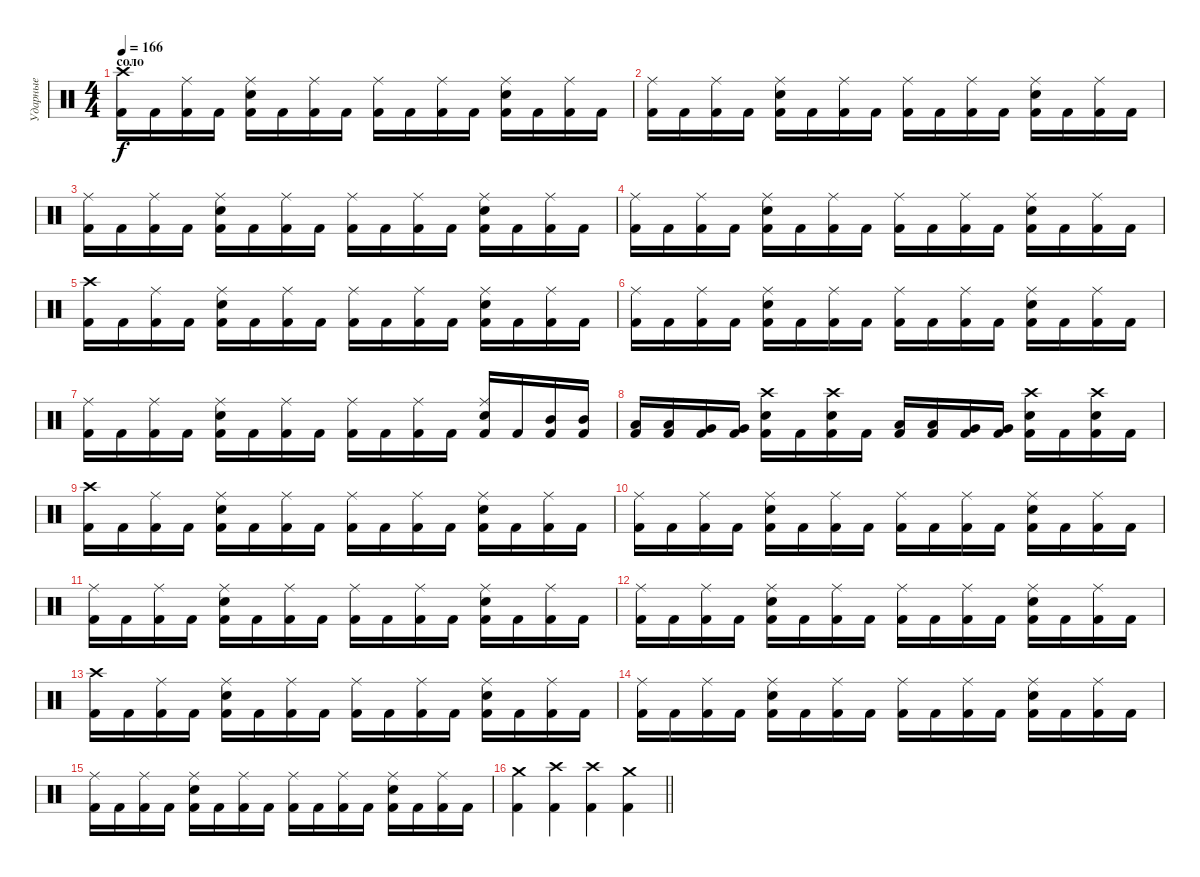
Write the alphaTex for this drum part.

\track ("Ударные" "Ударные") {instrument percussion}
\staff {score}
\articulation defaults
\ts (4 4)
\section ("" "соло")
\tempo 166
\clef neutral
\ks c
("Crash high (hit)" "Kick (hit) 2").16{dy f} "Kick (hit) 2".16 ("Ride (middle)" "Kick (hit) 2").16 "Kick (hit) 2".16 ("Ride (middle)" "Snare (hit) 2" "Kick (hit) 2").16 "Kick (hit) 2".16 ("Ride (middle)" "Kick (hit) 2").16 "Kick (hit) 2".16 ("Ride (middle)" "Kick (hit) 2").16 "Kick (hit) 2".16 ("Ride (middle)" "Kick (hit) 2").16 "Kick (hit) 2".16 ("Ride (middle)" "Snare (hit) 2" "Kick (hit) 2").16 "Kick (hit) 2".16 ("Ride (middle)" "Kick (hit) 2").16 "Kick (hit) 2".16 |
("Ride (middle)" "Kick (hit) 2").16 "Kick (hit) 2".16 ("Ride (middle)" "Kick (hit) 2").16 "Kick (hit) 2".16 ("Ride (middle)" "Snare (hit) 2" "Kick (hit) 2").16 "Kick (hit) 2".16 ("Ride (middle)" "Kick (hit) 2").16 "Kick (hit) 2".16 ("Ride (middle)" "Kick (hit) 2").16 "Kick (hit) 2".16 ("Ride (middle)" "Kick (hit) 2").16 "Kick (hit) 2".16 ("Ride (middle)" "Snare (hit) 2" "Kick (hit) 2").16 "Kick (hit) 2".16 ("Ride (middle)" "Kick (hit) 2").16 "Kick (hit) 2".16 |
("Ride (middle)" "Kick (hit) 2").16 "Kick (hit) 2".16 ("Ride (middle)" "Kick (hit) 2").16 "Kick (hit) 2".16 ("Ride (middle)" "Snare (hit) 2" "Kick (hit) 2").16 "Kick (hit) 2".16 ("Ride (middle)" "Kick (hit) 2").16 "Kick (hit) 2".16 ("Ride (middle)" "Kick (hit) 2").16 "Kick (hit) 2".16 ("Ride (middle)" "Kick (hit) 2").16 "Kick (hit) 2".16 ("Ride (middle)" "Snare (hit) 2" "Kick (hit) 2").16 "Kick (hit) 2".16 ("Ride (middle)" "Kick (hit) 2").16 "Kick (hit) 2".16 |
("Ride (middle)" "Kick (hit) 2").16 "Kick (hit) 2".16 ("Ride (middle)" "Kick (hit) 2").16 "Kick (hit) 2".16 ("Ride (middle)" "Snare (hit) 2" "Kick (hit) 2").16 "Kick (hit) 2".16 ("Ride (middle)" "Kick (hit) 2").16 "Kick (hit) 2".16 ("Ride (middle)" "Kick (hit) 2").16 "Kick (hit) 2".16 ("Ride (middle)" "Kick (hit) 2").16 "Kick (hit) 2".16 ("Ride (middle)" "Snare (hit) 2" "Kick (hit) 2").16 "Kick (hit) 2".16 ("Ride (middle)" "Kick (hit) 2").16 "Kick (hit) 2".16 |
("Crash high (hit)" "Kick (hit) 2").16 "Kick (hit) 2".16 ("Ride (middle)" "Kick (hit) 2").16 "Kick (hit) 2".16 ("Ride (middle)" "Snare (hit) 2" "Kick (hit) 2").16 "Kick (hit) 2".16 ("Ride (middle)" "Kick (hit) 2").16 "Kick (hit) 2".16 ("Ride (middle)" "Kick (hit) 2").16 "Kick (hit) 2".16 ("Ride (middle)" "Kick (hit) 2").16 "Kick (hit) 2".16 ("Ride (middle)" "Snare (hit) 2" "Kick (hit) 2").16 "Kick (hit) 2".16 ("Ride (middle)" "Kick (hit) 2").16 "Kick (hit) 2".16 |
("Ride (middle)" "Kick (hit) 2").16 "Kick (hit) 2".16 ("Ride (middle)" "Kick (hit) 2").16 "Kick (hit) 2".16 ("Ride (middle)" "Snare (hit) 2" "Kick (hit) 2").16 "Kick (hit) 2".16 ("Ride (middle)" "Kick (hit) 2").16 "Kick (hit) 2".16 ("Ride (middle)" "Kick (hit) 2").16 "Kick (hit) 2".16 ("Ride (middle)" "Kick (hit) 2").16 "Kick (hit) 2".16 ("Ride (middle)" "Snare (hit) 2" "Kick (hit) 2").16 "Kick (hit) 2".16 ("Ride (middle)" "Kick (hit) 2").16 "Kick (hit) 2".16 |
("Ride (middle)" "Kick (hit) 2").16 "Kick (hit) 2".16 ("Ride (middle)" "Kick (hit) 2").16 "Kick (hit) 2".16 ("Ride (middle)" "Snare (hit) 2" "Kick (hit) 2").16 "Kick (hit) 2".16 ("Ride (middle)" "Kick (hit) 2").16 "Kick (hit) 2".16 ("Ride (middle)" "Kick (hit) 2").16 "Kick (hit) 2".16 ("Ride (middle)" "Kick (hit) 2").16 "Kick (hit) 2".16 ("Ride (middle)" "Snare (hit) 2" "Kick (hit) 2").16 "Kick (hit) 2".16 ("Mid Tom (hit)" "Kick (hit) 2").16 ("Mid Tom (hit)" "Kick (hit) 2").16 |
("Low Tom (hit)" "Kick (hit) 2").16 ("Low Tom (hit)" "Kick (hit) 2").16 ("Very Low Tom (hit)" "Kick (hit) 2").16 ("Very Low Tom (hit)" "Kick (hit) 2").16 ("Crash high (hit)" "Snare (hit) 2" "Kick (hit) 2").16 "Kick (hit) 2".16 ("Crash high (hit)" "Snare (hit) 2" "Kick (hit) 2").16 "Kick (hit) 2".16 ("Low Tom (hit)" "Kick (hit) 2").16 ("Low Tom (hit)" "Kick (hit) 2").16 ("Very Low Tom (hit)" "Kick (hit) 2").16 ("Very Low Tom (hit)" "Kick (hit) 2").16 ("Crash high (hit)" "Snare (hit) 2" "Kick (hit) 2").16 "Kick (hit) 2".16 ("Crash high (hit)" "Snare (hit) 2" "Kick (hit) 2").16 "Kick (hit) 2".16 |
("Crash high (hit)" "Kick (hit) 2").16 "Kick (hit) 2".16 ("Ride (middle)" "Kick (hit) 2").16 "Kick (hit) 2".16 ("Ride (middle)" "Snare (hit) 2" "Kick (hit) 2").16 "Kick (hit) 2".16 ("Ride (middle)" "Kick (hit) 2").16 "Kick (hit) 2".16 ("Ride (middle)" "Kick (hit) 2").16 "Kick (hit) 2".16 ("Ride (middle)" "Kick (hit) 2").16 "Kick (hit) 2".16 ("Ride (middle)" "Snare (hit) 2" "Kick (hit) 2").16 "Kick (hit) 2".16 ("Ride (middle)" "Kick (hit) 2").16 "Kick (hit) 2".16 |
("Ride (middle)" "Kick (hit) 2").16 "Kick (hit) 2".16 ("Ride (middle)" "Kick (hit) 2").16 "Kick (hit) 2".16 ("Ride (middle)" "Snare (hit) 2" "Kick (hit) 2").16 "Kick (hit) 2".16 ("Ride (middle)" "Kick (hit) 2").16 "Kick (hit) 2".16 ("Ride (middle)" "Kick (hit) 2").16 "Kick (hit) 2".16 ("Ride (middle)" "Kick (hit) 2").16 "Kick (hit) 2".16 ("Ride (middle)" "Snare (hit) 2" "Kick (hit) 2").16 "Kick (hit) 2".16 ("Ride (middle)" "Kick (hit) 2").16 "Kick (hit) 2".16 |
("Ride (middle)" "Kick (hit) 2").16 "Kick (hit) 2".16 ("Ride (middle)" "Kick (hit) 2").16 "Kick (hit) 2".16 ("Ride (middle)" "Snare (hit) 2" "Kick (hit) 2").16 "Kick (hit) 2".16 ("Ride (middle)" "Kick (hit) 2").16 "Kick (hit) 2".16 ("Ride (middle)" "Kick (hit) 2").16 "Kick (hit) 2".16 ("Ride (middle)" "Kick (hit) 2").16 "Kick (hit) 2".16 ("Ride (middle)" "Snare (hit) 2" "Kick (hit) 2").16 "Kick (hit) 2".16 ("Ride (middle)" "Kick (hit) 2").16 "Kick (hit) 2".16 |
("Ride (middle)" "Kick (hit) 2").16 "Kick (hit) 2".16 ("Ride (middle)" "Kick (hit) 2").16 "Kick (hit) 2".16 ("Ride (middle)" "Snare (hit) 2" "Kick (hit) 2").16 "Kick (hit) 2".16 ("Ride (middle)" "Kick (hit) 2").16 "Kick (hit) 2".16 ("Ride (middle)" "Kick (hit) 2").16 "Kick (hit) 2".16 ("Ride (middle)" "Kick (hit) 2").16 "Kick (hit) 2".16 ("Ride (middle)" "Snare (hit) 2" "Kick (hit) 2").16 "Kick (hit) 2".16 ("Ride (middle)" "Kick (hit) 2").16 "Kick (hit) 2".16 |
("Crash high (hit)" "Kick (hit) 2").16 "Kick (hit) 2".16 ("Ride (middle)" "Kick (hit) 2").16 "Kick (hit) 2".16 ("Ride (middle)" "Snare (hit) 2" "Kick (hit) 2").16 "Kick (hit) 2".16 ("Ride (middle)" "Kick (hit) 2").16 "Kick (hit) 2".16 ("Ride (middle)" "Kick (hit) 2").16 "Kick (hit) 2".16 ("Ride (middle)" "Kick (hit) 2").16 "Kick (hit) 2".16 ("Ride (middle)" "Snare (hit) 2" "Kick (hit) 2").16 "Kick (hit) 2".16 ("Ride (middle)" "Kick (hit) 2").16 "Kick (hit) 2".16 |
("Ride (middle)" "Kick (hit) 2").16 "Kick (hit) 2".16 ("Ride (middle)" "Kick (hit) 2").16 "Kick (hit) 2".16 ("Ride (middle)" "Snare (hit) 2" "Kick (hit) 2").16 "Kick (hit) 2".16 ("Ride (middle)" "Kick (hit) 2").16 "Kick (hit) 2".16 ("Ride (middle)" "Kick (hit) 2").16 "Kick (hit) 2".16 ("Ride (middle)" "Kick (hit) 2").16 "Kick (hit) 2".16 ("Ride (middle)" "Snare (hit) 2" "Kick (hit) 2").16 "Kick (hit) 2".16 ("Ride (middle)" "Kick (hit) 2").16 "Kick (hit) 2".16 |
("Ride (middle)" "Kick (hit) 2").16 "Kick (hit) 2".16 ("Ride (middle)" "Kick (hit) 2").16 "Kick (hit) 2".16 ("Ride (middle)" "Snare (hit) 2" "Kick (hit) 2").16 "Kick (hit) 2".16 ("Ride (middle)" "Kick (hit) 2").16 "Kick (hit) 2".16 ("Ride (middle)" "Kick (hit) 2").16 "Kick (hit) 2".16 ("Ride (middle)" "Kick (hit) 2").16 "Kick (hit) 2".16 ("Ride (middle)" "Snare (hit) 2" "Kick (hit) 2").16 "Kick (hit) 2".16 ("Ride (middle)" "Kick (hit) 2").16 "Kick (hit) 2".16 |
\barLineRight lightlight
("Crash medium (hit)" "Kick (hit) 2").4 ("Crash high (hit)" "Kick (hit) 2").4 ("Crash high (hit)" "Kick (hit) 2").4 ("Crash medium (hit)" "Kick (hit) 2").4
